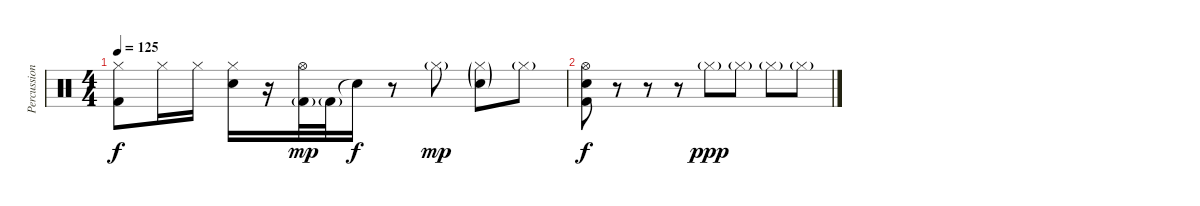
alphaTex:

\track ("Percussion" "Percussion") {instrument percussion}
\staff {score}
\articulation defaults
\ts (4 4)
\tempo 125
\clef neutral
\ks c
("Hi-Hat (closed)" "Kick (hit) 2").8{dy f} "Hi-Hat (closed)".16 "Hi-Hat (closed)".16 ("Hi-Hat (closed)" "Snare (hit) 2").16 r.16 ("Hi-Hat (open)" "Kick (hit) 2"{g}).32{dy mp} "Kick (hit) 2"{g}.32 "Snare (hit)"{t}.16{dy f} r.8 "Hi-Hat (closed)"{g}.8{dy mp} ("Hi-Hat (closed)"{g} "Snare (hit) 2"{g}).8 "Hi-Hat (closed)"{g}.8 |
("Hi-Hat (open)" "Snare (hit) 2" "Kick (hit) 2").8{dy f volume 8} r.8 r.8 r.8 "Hi-Hat (closed)"{g}.8{dy ppp} "Hi-Hat (closed)"{g}.8 "Hi-Hat (closed)"{g}.8 "Hi-Hat (closed)"{g}.8
